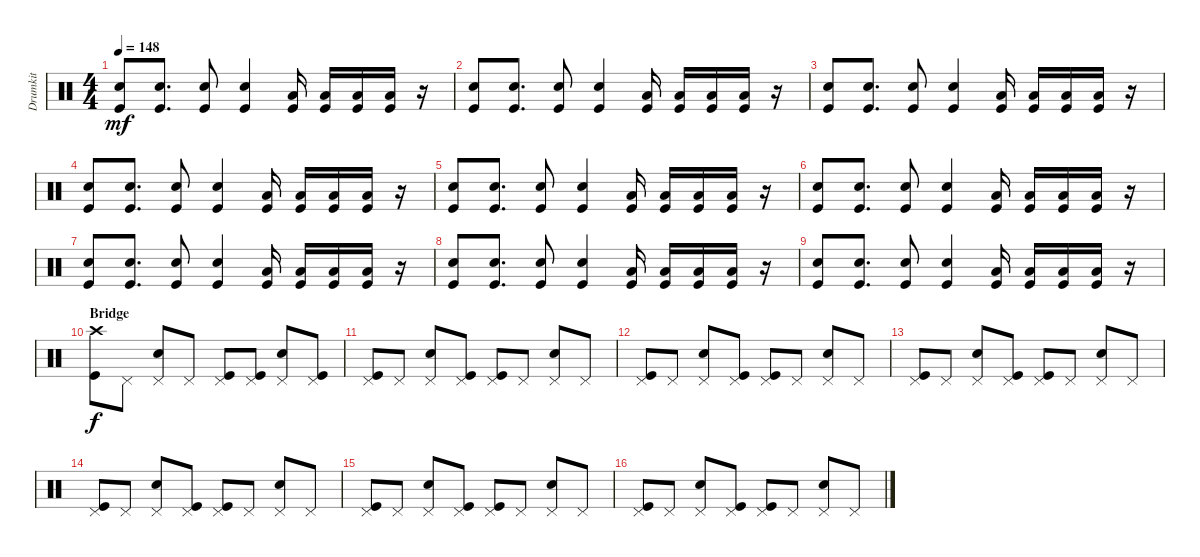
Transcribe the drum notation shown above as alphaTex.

\track ("Drumkit" "Drumkit") {instrument percussion}
\staff {score}
\articulation defaults
\ts (4 4)
\tempo 148
\clef neutral
\ks c
("Snare (hit) 2" "Kick (hit)").8{dy mf} ("Snare (hit) 2" "Kick (hit)").8{d} ("Snare (hit) 2" "Kick (hit)").8 ("Snare (hit) 2" "Kick (hit)").4 ("Kick (hit)" "Low Tom (hit)").16 ("Kick (hit)" "Low Tom (hit)").16 ("Kick (hit)" "Low Tom (hit)").16 ("Kick (hit)" "Low Tom (hit)").16 r.16 |
("Snare (hit) 2" "Kick (hit)").8 ("Snare (hit) 2" "Kick (hit)").8{d} ("Snare (hit) 2" "Kick (hit)").8 ("Snare (hit) 2" "Kick (hit)").4 ("Kick (hit)" "Low Tom (hit)").16 ("Kick (hit)" "Low Tom (hit)").16 ("Kick (hit)" "Low Tom (hit)").16 ("Kick (hit)" "Low Tom (hit)").16 r.16 |
("Snare (hit) 2" "Kick (hit)").8 ("Snare (hit) 2" "Kick (hit)").8{d} ("Snare (hit) 2" "Kick (hit)").8 ("Snare (hit) 2" "Kick (hit)").4 ("Kick (hit)" "Low Tom (hit)").16 ("Kick (hit)" "Low Tom (hit)").16 ("Kick (hit)" "Low Tom (hit)").16 ("Kick (hit)" "Low Tom (hit)").16 r.16 |
("Snare (hit) 2" "Kick (hit)").8 ("Snare (hit) 2" "Kick (hit)").8{d} ("Snare (hit) 2" "Kick (hit)").8 ("Snare (hit) 2" "Kick (hit)").4 ("Kick (hit)" "Low Tom (hit)").16 ("Kick (hit)" "Low Tom (hit)").16 ("Kick (hit)" "Low Tom (hit)").16 ("Kick (hit)" "Low Tom (hit)").16 r.16 |
("Snare (hit) 2" "Kick (hit)").8 ("Snare (hit) 2" "Kick (hit)").8{d} ("Snare (hit) 2" "Kick (hit)").8 ("Snare (hit) 2" "Kick (hit)").4 ("Kick (hit)" "Low Tom (hit)").16 ("Kick (hit)" "Low Tom (hit)").16 ("Kick (hit)" "Low Tom (hit)").16 ("Kick (hit)" "Low Tom (hit)").16 r.16 |
("Snare (hit) 2" "Kick (hit)").8 ("Snare (hit) 2" "Kick (hit)").8{d} ("Snare (hit) 2" "Kick (hit)").8 ("Snare (hit) 2" "Kick (hit)").4 ("Kick (hit)" "Low Tom (hit)").16 ("Kick (hit)" "Low Tom (hit)").16 ("Kick (hit)" "Low Tom (hit)").16 ("Kick (hit)" "Low Tom (hit)").16 r.16 |
("Snare (hit) 2" "Kick (hit)").8 ("Snare (hit) 2" "Kick (hit)").8{d} ("Snare (hit) 2" "Kick (hit)").8 ("Snare (hit) 2" "Kick (hit)").4 ("Kick (hit)" "Low Tom (hit)").16 ("Kick (hit)" "Low Tom (hit)").16 ("Kick (hit)" "Low Tom (hit)").16 ("Kick (hit)" "Low Tom (hit)").16 r.16 |
("Snare (hit) 2" "Kick (hit)").8 ("Snare (hit) 2" "Kick (hit)").8{d} ("Snare (hit) 2" "Kick (hit)").8 ("Snare (hit) 2" "Kick (hit)").4 ("Kick (hit)" "Low Tom (hit)").16 ("Kick (hit)" "Low Tom (hit)").16 ("Kick (hit)" "Low Tom (hit)").16 ("Kick (hit)" "Low Tom (hit)").16 r.16 |
("Snare (hit) 2" "Kick (hit)").8 ("Snare (hit) 2" "Kick (hit)").8{d} ("Snare (hit) 2" "Kick (hit)").8 ("Snare (hit) 2" "Kick (hit)").4 ("Kick (hit)" "Low Tom (hit)").16 ("Kick (hit)" "Low Tom (hit)").16 ("Kick (hit)" "Low Tom (hit)").16 ("Kick (hit)" "Low Tom (hit)").16 r.16 |
\section ("" "Bridge")
("Crash high (hit)" "Kick (hit)").8{dy f} "Pedal Hi-Hat (hit)".8 ("Pedal Hi-Hat (hit)" "Snare (hit) 2").8 "Pedal Hi-Hat (hit)".8 ("Pedal Hi-Hat (hit)" "Kick (hit)").8 ("Pedal Hi-Hat (hit)" "Kick (hit)").8 ("Pedal Hi-Hat (hit)" "Snare (hit) 2").8 ("Pedal Hi-Hat (hit)" "Kick (hit)").8 |
("Pedal Hi-Hat (hit)" "Kick (hit)").8 "Pedal Hi-Hat (hit)".8 ("Pedal Hi-Hat (hit)" "Snare (hit) 2").8 ("Pedal Hi-Hat (hit)" "Kick (hit)").8 ("Pedal Hi-Hat (hit)" "Kick (hit)").8 "Pedal Hi-Hat (hit)".8 ("Pedal Hi-Hat (hit)" "Snare (hit) 2").8 "Pedal Hi-Hat (hit)".8 |
("Pedal Hi-Hat (hit)" "Kick (hit)").8 "Pedal Hi-Hat (hit)".8 ("Pedal Hi-Hat (hit)" "Snare (hit) 2").8 ("Pedal Hi-Hat (hit)" "Kick (hit)").8 ("Pedal Hi-Hat (hit)" "Kick (hit)").8 "Pedal Hi-Hat (hit)".8 ("Pedal Hi-Hat (hit)" "Snare (hit) 2").8 "Pedal Hi-Hat (hit)".8 |
("Pedal Hi-Hat (hit)" "Kick (hit)").8 "Pedal Hi-Hat (hit)".8 ("Pedal Hi-Hat (hit)" "Snare (hit) 2").8 ("Pedal Hi-Hat (hit)" "Kick (hit)").8 ("Pedal Hi-Hat (hit)" "Kick (hit)").8 "Pedal Hi-Hat (hit)".8 ("Pedal Hi-Hat (hit)" "Snare (hit) 2").8 "Pedal Hi-Hat (hit)".8 |
("Pedal Hi-Hat (hit)" "Kick (hit)").8 "Pedal Hi-Hat (hit)".8 ("Pedal Hi-Hat (hit)" "Snare (hit) 2").8 ("Pedal Hi-Hat (hit)" "Kick (hit)").8 ("Pedal Hi-Hat (hit)" "Kick (hit)").8 "Pedal Hi-Hat (hit)".8 ("Pedal Hi-Hat (hit)" "Snare (hit) 2").8 "Pedal Hi-Hat (hit)".8 |
("Pedal Hi-Hat (hit)" "Kick (hit)").8 "Pedal Hi-Hat (hit)".8 ("Pedal Hi-Hat (hit)" "Snare (hit) 2").8 ("Pedal Hi-Hat (hit)" "Kick (hit)").8 ("Pedal Hi-Hat (hit)" "Kick (hit)").8 "Pedal Hi-Hat (hit)".8 ("Pedal Hi-Hat (hit)" "Snare (hit) 2").8 "Pedal Hi-Hat (hit)".8 |
("Pedal Hi-Hat (hit)" "Kick (hit)").8 "Pedal Hi-Hat (hit)".8 ("Pedal Hi-Hat (hit)" "Snare (hit) 2").8 ("Pedal Hi-Hat (hit)" "Kick (hit)").8 ("Pedal Hi-Hat (hit)" "Kick (hit)").8 "Pedal Hi-Hat (hit)".8 ("Pedal Hi-Hat (hit)" "Snare (hit) 2").8 "Pedal Hi-Hat (hit)".8
